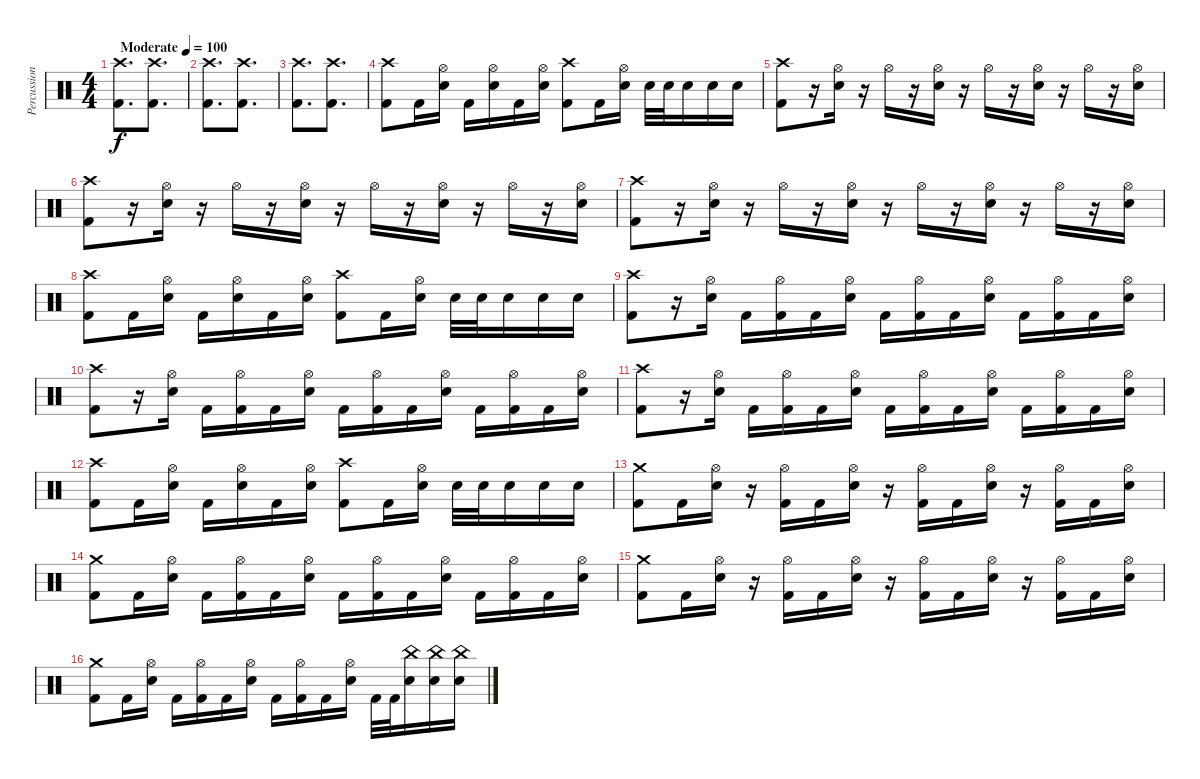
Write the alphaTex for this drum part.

\track ("Percussion" "Percussion") {instrument percussion}
\staff {score}
\articulation defaults
\ts (4 4)
\tempo (100 "Moderate")
\clef neutral
\ks c
("Crash high (hit)" "Kick (hit) 2").8{d dy f} ("Crash high (hit)" "Kick (hit) 2").8{d} |
("Crash high (hit)" "Kick (hit) 2").8{d} ("Crash high (hit)" "Kick (hit) 2").8{d} |
("Crash high (hit)" "Kick (hit) 2").8{d} ("Crash high (hit)" "Kick (hit) 2").8{d} |
("Crash high (hit)" "Kick (hit) 2").8 "Kick (hit) 2".16 ("Hi-Hat (open)" "Snare (hit) 2").16 "Kick (hit) 2".16 ("Hi-Hat (open)" "Snare (hit) 2").16 "Kick (hit) 2".16 ("Hi-Hat (open)" "Snare (hit) 2").16 ("Crash high (hit)" "Kick (hit) 2").8 "Kick (hit) 2".16 ("Hi-Hat (open)" "Snare (hit) 2").16 "Snare (hit) 2".32 "Snare (hit) 2".32 "Snare (hit) 2".16 "Snare (hit) 2".16 "Snare (hit) 2".16 |
("Crash high (hit)" "Kick (hit) 2").8 r.16 ("Hi-Hat (open)" "Snare (hit) 2").16 r.16 "Hi-Hat (open)".16 r.16 ("Hi-Hat (open)" "Snare (hit) 2").16 r.16 "Hi-Hat (open)".16 r.16 ("Hi-Hat (open)" "Snare (hit) 2").16 r.16 "Hi-Hat (open)".16 r.16 ("Hi-Hat (open)" "Snare (hit) 2").16 |
("Crash high (hit)" "Kick (hit) 2").8 r.16 ("Hi-Hat (open)" "Snare (hit) 2").16 r.16 "Hi-Hat (open)".16 r.16 ("Hi-Hat (open)" "Snare (hit) 2").16 r.16 "Hi-Hat (open)".16 r.16 ("Hi-Hat (open)" "Snare (hit) 2").16 r.16 "Hi-Hat (open)".16 r.16 ("Hi-Hat (open)" "Snare (hit) 2").16 |
("Crash high (hit)" "Kick (hit) 2").8 r.16 ("Hi-Hat (open)" "Snare (hit) 2").16 r.16 "Hi-Hat (open)".16 r.16 ("Hi-Hat (open)" "Snare (hit) 2").16 r.16 "Hi-Hat (open)".16 r.16 ("Hi-Hat (open)" "Snare (hit) 2").16 r.16 "Hi-Hat (open)".16 r.16 ("Hi-Hat (open)" "Snare (hit) 2").16 |
("Crash high (hit)" "Kick (hit) 2").8 "Kick (hit) 2".16 ("Hi-Hat (open)" "Snare (hit) 2").16 "Kick (hit) 2".16 ("Hi-Hat (open)" "Snare (hit) 2").16 "Kick (hit) 2".16 ("Hi-Hat (open)" "Snare (hit) 2").16 ("Crash high (hit)" "Kick (hit) 2").8 "Kick (hit) 2".16 ("Hi-Hat (open)" "Snare (hit) 2").16 "Snare (hit) 2".32 "Snare (hit) 2".32 "Snare (hit) 2".16 "Snare (hit) 2".16 "Snare (hit) 2".16 |
("Crash high (hit)" "Kick (hit) 2").8 r.16 ("Hi-Hat (open)" "Snare (hit) 2").16 "Kick (hit) 2".16 ("Hi-Hat (open)" "Kick (hit) 2").16 "Kick (hit) 2".16 ("Hi-Hat (open)" "Snare (hit) 2").16 "Kick (hit) 2".16 ("Hi-Hat (open)" "Kick (hit) 2").16 "Kick (hit) 2".16 ("Hi-Hat (open)" "Snare (hit) 2").16 "Kick (hit) 2".16 ("Hi-Hat (open)" "Kick (hit) 2").16 "Kick (hit) 2".16 ("Hi-Hat (open)" "Snare (hit) 2").16 |
("Crash high (hit)" "Kick (hit) 2").8 r.16 ("Hi-Hat (open)" "Snare (hit) 2").16 "Kick (hit) 2".16 ("Hi-Hat (open)" "Kick (hit) 2").16 "Kick (hit) 2".16 ("Hi-Hat (open)" "Snare (hit) 2").16 "Kick (hit) 2".16 ("Hi-Hat (open)" "Kick (hit) 2").16 "Kick (hit) 2".16 ("Hi-Hat (open)" "Snare (hit) 2").16 "Kick (hit) 2".16 ("Hi-Hat (open)" "Kick (hit) 2").16 "Kick (hit) 2".16 ("Hi-Hat (open)" "Snare (hit) 2").16 |
("Crash high (hit)" "Kick (hit) 2").8 r.16 ("Hi-Hat (open)" "Snare (hit) 2").16 "Kick (hit) 2".16 ("Hi-Hat (open)" "Kick (hit) 2").16 "Kick (hit) 2".16 ("Hi-Hat (open)" "Snare (hit) 2").16 "Kick (hit) 2".16 ("Hi-Hat (open)" "Kick (hit) 2").16 "Kick (hit) 2".16 ("Hi-Hat (open)" "Snare (hit) 2").16 "Kick (hit) 2".16 ("Hi-Hat (open)" "Kick (hit) 2").16 "Kick (hit) 2".16 ("Hi-Hat (open)" "Snare (hit) 2").16 |
("Crash high (hit)" "Kick (hit) 2").8 "Kick (hit) 2".16 ("Hi-Hat (open)" "Snare (hit) 2").16 "Kick (hit) 2".16 ("Hi-Hat (open)" "Snare (hit) 2").16 "Kick (hit) 2".16 ("Hi-Hat (open)" "Snare (hit) 2").16 ("Crash high (hit)" "Kick (hit) 2").8 "Kick (hit) 2".16 ("Hi-Hat (open)" "Snare (hit) 2").16 "Snare (hit) 2".32 "Snare (hit) 2".32 "Snare (hit) 2".16 "Snare (hit) 2".16 "Snare (hit) 2".16 |
("Crash medium (hit)" "Kick (hit) 2").8 "Kick (hit) 2".16 ("Hi-Hat (open)" "Snare (hit) 2").16 r.16 ("Hi-Hat (open)" "Kick (hit) 2").16 "Kick (hit) 2".16 ("Hi-Hat (open)" "Snare (hit) 2").16 r.16 ("Hi-Hat (open)" "Kick (hit) 2").16 "Kick (hit) 2".16 ("Hi-Hat (open)" "Snare (hit) 2").16 r.16 ("Hi-Hat (open)" "Kick (hit) 2").16 "Kick (hit) 2".16 ("Hi-Hat (open)" "Snare (hit) 2").16 |
("Crash medium (hit)" "Kick (hit) 2").8 "Kick (hit) 2".16 ("Hi-Hat (open)" "Snare (hit) 2").16 "Kick (hit) 2".16 ("Hi-Hat (open)" "Kick (hit) 2").16 "Kick (hit) 2".16 ("Hi-Hat (open)" "Snare (hit) 2").16 "Kick (hit) 2".16 ("Hi-Hat (open)" "Kick (hit) 2").16 "Kick (hit) 2".16 ("Hi-Hat (open)" "Snare (hit) 2").16 "Kick (hit) 2".16 ("Hi-Hat (open)" "Kick (hit) 2").16 "Kick (hit) 2".16 ("Hi-Hat (open)" "Snare (hit) 2").16 |
("Crash medium (hit)" "Kick (hit) 2").8 "Kick (hit) 2".16 ("Hi-Hat (open)" "Snare (hit) 2").16 r.16 ("Hi-Hat (open)" "Kick (hit) 2").16 "Kick (hit) 2".16 ("Hi-Hat (open)" "Snare (hit) 2").16 r.16 ("Hi-Hat (open)" "Kick (hit) 2").16 "Kick (hit) 2".16 ("Hi-Hat (open)" "Snare (hit) 2").16 r.16 ("Hi-Hat (open)" "Kick (hit) 2").16 "Kick (hit) 2".16 ("Hi-Hat (open)" "Snare (hit) 2").16 |
("Crash medium (hit)" "Kick (hit) 2").8 "Kick (hit) 2".16 ("Hi-Hat (open)" "Snare (hit) 2").16 "Kick (hit) 2".16 ("Hi-Hat (open)" "Kick (hit) 2").16 "Kick (hit) 2".16 ("Hi-Hat (open)" "Snare (hit) 2").16 "Kick (hit) 2".16 ("Hi-Hat (open)" "Kick (hit) 2").16 "Kick (hit) 2".16 ("Hi-Hat (open)" "Snare (hit) 2").16 "Kick (hit) 2".32 "Kick (hit) 2".32 ("China (hit)" "Snare (hit) 2").16 ("China (hit)" "Snare (hit) 2").16 ("China (hit)" "Snare (hit) 2").16
